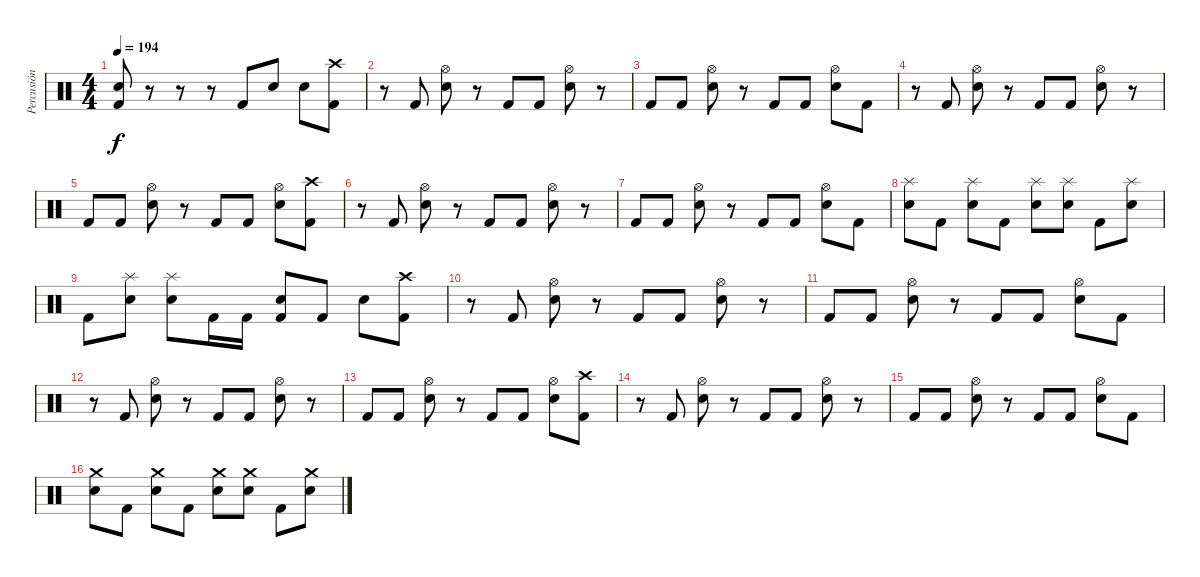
\track ("Percusión" "Percusión") {instrument percussion}
\staff {score}
\articulation defaults
\ts (4 4)
\tempo 194
\clef neutral
\ks c
("Kick (hit) 2" "Snare (hit) 2").8{dy f} r.8 r.8 r.8 "Kick (hit) 2".8 "Snare (hit) 2".8 "Snare (hit) 2".8 ("Kick (hit) 2" "Crash high (hit)").8 |
r.8 "Kick (hit) 2".8 ("Snare (hit) 2" "Hi-Hat (open)").8 r.8 "Kick (hit) 2".8 "Kick (hit) 2".8 ("Snare (hit) 2" "Hi-Hat (open)").8 r.8 |
"Kick (hit) 2".8 "Kick (hit) 2".8 ("Snare (hit) 2" "Hi-Hat (open)").8 r.8 "Kick (hit) 2".8 "Kick (hit) 2".8 ("Snare (hit) 2" "Hi-Hat (open)").8 "Kick (hit) 2".8 |
r.8 "Kick (hit) 2".8 ("Snare (hit) 2" "Hi-Hat (open)").8 r.8 "Kick (hit) 2".8 "Kick (hit) 2".8 ("Snare (hit) 2" "Hi-Hat (open)").8 r.8 |
"Kick (hit) 2".8 "Kick (hit) 2".8 ("Snare (hit) 2" "Hi-Hat (open)").8 r.8 "Kick (hit) 2".8 "Kick (hit) 2".8 ("Snare (hit) 2" "Hi-Hat (open)").8 ("Kick (hit) 2" "Crash high (hit)").8 |
r.8 "Kick (hit) 2".8 ("Snare (hit) 2" "Hi-Hat (open)").8 r.8 "Kick (hit) 2".8 "Kick (hit) 2".8 ("Snare (hit) 2" "Hi-Hat (open)").8 r.8 |
"Kick (hit) 2".8 "Kick (hit) 2".8 ("Snare (hit) 2" "Hi-Hat (open)").8 r.8 "Kick (hit) 2".8 "Kick (hit) 2".8 ("Snare (hit) 2" "Hi-Hat (open)").8 "Kick (hit) 2".8 |
("Snare (hit) 2" "Splash (hit)").8 "Kick (hit) 2".8 ("Snare (hit) 2" "Splash (hit)").8 "Kick (hit) 2".8 ("Snare (hit) 2" "Splash (hit)").8 ("Snare (hit) 2" "Splash (hit)").8 "Kick (hit) 2".8 ("Snare (hit) 2" "Splash (hit)").8 |
"Kick (hit) 2".8 ("Snare (hit) 2" "Splash (hit)").8 ("Snare (hit) 2" "Splash (hit)").8 "Kick (hit) 2".16 "Kick (hit) 2".16 ("Kick (hit) 2" "Snare (hit) 2").8 "Kick (hit) 2".8 "Snare (hit) 2".8 ("Kick (hit) 2" "Crash high (hit)").8 |
r.8 "Kick (hit) 2".8 ("Snare (hit) 2" "Hi-Hat (open)").8 r.8 "Kick (hit) 2".8 "Kick (hit) 2".8 ("Snare (hit) 2" "Hi-Hat (open)").8 r.8 |
"Kick (hit) 2".8 "Kick (hit) 2".8 ("Snare (hit) 2" "Hi-Hat (open)").8 r.8 "Kick (hit) 2".8 "Kick (hit) 2".8 ("Snare (hit) 2" "Hi-Hat (open)").8 "Kick (hit) 2".8 |
r.8 "Kick (hit) 2".8 ("Snare (hit) 2" "Hi-Hat (open)").8 r.8 "Kick (hit) 2".8 "Kick (hit) 2".8 ("Snare (hit) 2" "Hi-Hat (open)").8 r.8 |
"Kick (hit) 2".8 "Kick (hit) 2".8 ("Snare (hit) 2" "Hi-Hat (open)").8 r.8 "Kick (hit) 2".8 "Kick (hit) 2".8 ("Snare (hit) 2" "Hi-Hat (open)").8 ("Kick (hit) 2" "Crash high (hit)").8 |
r.8 "Kick (hit) 2".8 ("Snare (hit) 2" "Hi-Hat (open)").8 r.8 "Kick (hit) 2".8 "Kick (hit) 2".8 ("Snare (hit) 2" "Hi-Hat (open)").8 r.8 |
"Kick (hit) 2".8 "Kick (hit) 2".8 ("Snare (hit) 2" "Hi-Hat (open)").8 r.8 "Kick (hit) 2".8 "Kick (hit) 2".8 ("Snare (hit) 2" "Hi-Hat (open)").8 "Kick (hit) 2".8 |
("Snare (hit) 2" "Crash medium (hit)").8 "Kick (hit) 2".8 ("Snare (hit) 2" "Crash medium (hit)").8 "Kick (hit) 2".8 ("Snare (hit) 2" "Crash medium (hit)").8 ("Snare (hit) 2" "Crash medium (hit)").8 "Kick (hit) 2".8 ("Snare (hit) 2" "Crash medium (hit)").8
